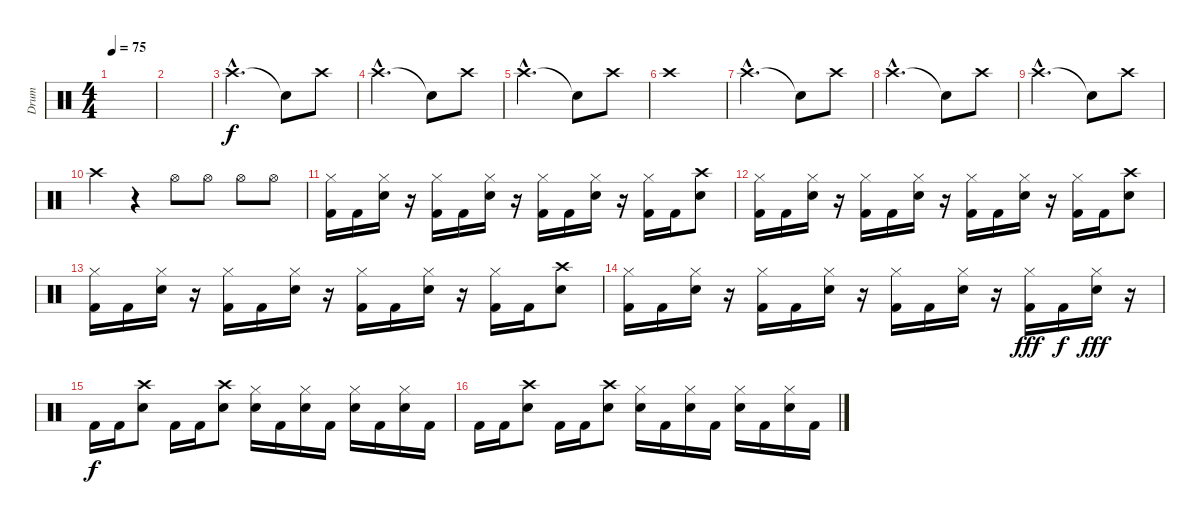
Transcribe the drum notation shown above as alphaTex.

\track ("Drum" "Drum") {instrument percussion}
\staff {score}
\articulation defaults
\ts (4 4)
\tempo 75
\clef neutral
\ks c
|
|
"Crash high (hit)"{hac}.2{d} "Snare (hit)"{t}.8 "Crash high (hit)".8 |
"Crash high (hit)"{hac}.2{d} "Snare (hit)"{t}.8 "Crash high (hit)".8 |
"Crash high (hit)"{hac}.2{d} "Snare (hit)"{t}.8 "Crash high (hit)".8 |
"Crash high (hit)".1 |
"Crash high (hit)"{hac}.2{d} "Snare (hit)"{t}.8 "Crash high (hit)".8 |
"Crash high (hit)"{hac}.2{d} "Snare (hit)"{t}.8 "Crash high (hit)".8 |
"Crash high (hit)"{hac}.2{d} "Snare (hit)"{t}.8 "Crash high (hit)".8 |
"Crash high (hit)".4 r.4 "Hi-Hat (open)".8 "Hi-Hat (open)".8 "Hi-Hat (open)".8 "Hi-Hat (open)".8 |
("Hi-Hat (closed)" "Kick (hit) 2").16 "Kick (hit) 2".16 ("Hi-Hat (closed)" "Electric Snare (hit)").16 r.16 ("Hi-Hat (closed)" "Kick (hit) 2").16 "Kick (hit) 2".16 ("Hi-Hat (closed)" "Electric Snare (hit)").16 r.16 ("Hi-Hat (closed)" "Kick (hit) 2").16 "Kick (hit) 2".16 ("Hi-Hat (closed)" "Electric Snare (hit)").16 r.16 ("Hi-Hat (closed)" "Kick (hit) 2").16 "Kick (hit) 2".16 ("Crash high (hit)" "Electric Snare (hit)").8 |
("Hi-Hat (closed)" "Kick (hit) 2").16 "Kick (hit) 2".16 ("Hi-Hat (closed)" "Electric Snare (hit)").16 r.16 ("Hi-Hat (closed)" "Kick (hit) 2").16 "Kick (hit) 2".16 ("Hi-Hat (closed)" "Electric Snare (hit)").16 r.16 ("Hi-Hat (closed)" "Kick (hit) 2").16 "Kick (hit) 2".16 ("Hi-Hat (closed)" "Electric Snare (hit)").16 r.16 ("Hi-Hat (closed)" "Kick (hit) 2").16 "Kick (hit) 2".16 ("Crash high (hit)" "Electric Snare (hit)").8 |
("Hi-Hat (closed)" "Kick (hit) 2").16 "Kick (hit) 2".16 ("Hi-Hat (closed)" "Electric Snare (hit)").16 r.16 ("Hi-Hat (closed)" "Kick (hit) 2").16 "Kick (hit) 2".16 ("Hi-Hat (closed)" "Electric Snare (hit)").16 r.16 ("Hi-Hat (closed)" "Kick (hit) 2").16 "Kick (hit) 2".16 ("Hi-Hat (closed)" "Electric Snare (hit)").16 r.16 ("Hi-Hat (closed)" "Kick (hit) 2").16 "Kick (hit) 2".16 ("Crash high (hit)" "Electric Snare (hit)").8 |
("Hi-Hat (closed)" "Kick (hit) 2").16 "Kick (hit) 2".16 ("Hi-Hat (closed)" "Electric Snare (hit)").16 r.16 ("Hi-Hat (closed)" "Kick (hit) 2").16 "Kick (hit) 2".16 ("Hi-Hat (closed)" "Electric Snare (hit)").16 r.16 ("Hi-Hat (closed)" "Kick (hit) 2").16 "Kick (hit) 2".16 ("Hi-Hat (closed)" "Electric Snare (hit)").16 r.16 ("Hi-Hat (closed)" "Kick (hit) 2").16{dy fff} "Kick (hit) 2".16{dy f} ("Hi-Hat (closed)" "Electric Snare (hit)").16{dy fff} r.16 |
"Kick (hit) 2".16{dy f} "Kick (hit) 2".16 ("Crash high (hit)" "Electric Snare (hit)").8 "Kick (hit) 2".16 "Kick (hit) 2".16 ("Crash high (hit)" "Electric Snare (hit)").8 ("Hi-Hat (closed)" "Electric Snare (hit)").16 "Kick (hit) 2".16 ("Hi-Hat (closed)" "Electric Snare (hit)").16 "Kick (hit) 2".16 ("Hi-Hat (closed)" "Electric Snare (hit)").16 "Kick (hit) 2".16 ("Hi-Hat (closed)" "Electric Snare (hit)").16 "Kick (hit) 2".16 |
"Kick (hit) 2".16 "Kick (hit) 2".16 ("Crash high (hit)" "Electric Snare (hit)").8 "Kick (hit) 2".16 "Kick (hit) 2".16 ("Crash high (hit)" "Electric Snare (hit)").8 ("Hi-Hat (closed)" "Electric Snare (hit)").16 "Kick (hit) 2".16 ("Hi-Hat (closed)" "Electric Snare (hit)").16 "Kick (hit) 2".16 ("Hi-Hat (closed)" "Electric Snare (hit)").16 "Kick (hit) 2".16 ("Hi-Hat (closed)" "Electric Snare (hit)").16 "Kick (hit) 2".16
